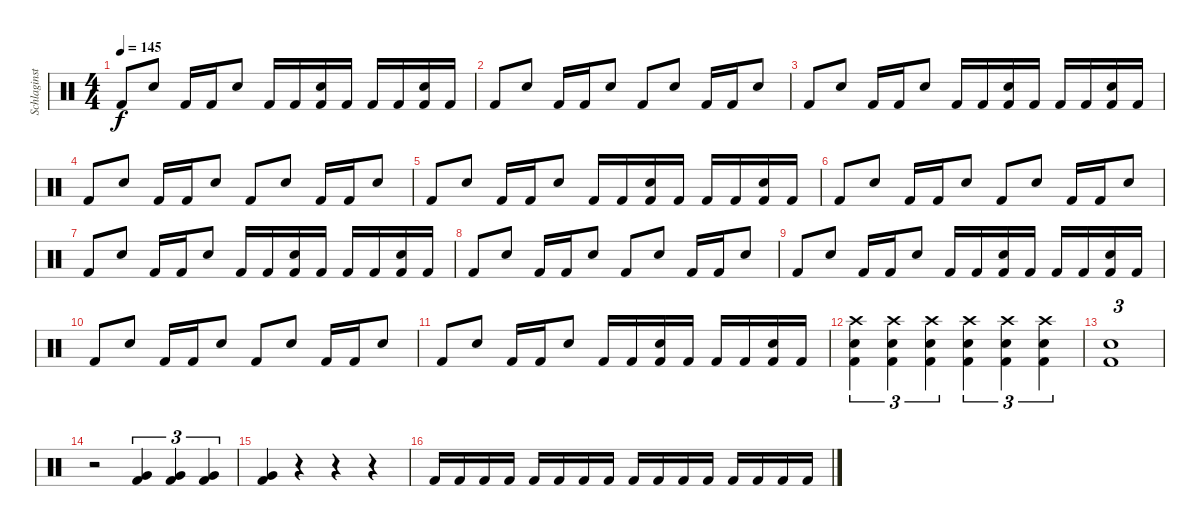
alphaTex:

\track ("Schlaginstrumente - Auswahl" "Schlaginst") {instrument percussion}
\staff {score}
\articulation defaults
\ts (4 4)
\tempo 145
\clef neutral
\ks c "Kick (hit) 2".8{dy f} "Snare (hit) 2".8 "Kick (hit) 2".16 "Kick (hit) 2".16 "Snare (hit) 2".8 "Kick (hit) 2".16 "Kick (hit) 2".16
("Snare (hit) 2" "Kick (hit) 2").16 "Kick (hit) 2".16 "Kick (hit) 2".16 "Kick (hit) 2".16 ("Snare (hit) 2" "Kick (hit) 2").16 "Kick (hit) 2".16 |
"Kick (hit) 2".8 "Snare (hit) 2".8 "Kick (hit) 2".16 "Kick (hit) 2".16 "Snare (hit) 2".8 "Kick (hit) 2".8 "Snare (hit) 2".8 "Kick (hit) 2".16 "Kick (hit) 2".16 "Snare (hit) 2".8 |
"Kick (hit) 2".8 "Snare (hit) 2".8 "Kick (hit) 2".16 "Kick (hit) 2".16 "Snare (hit) 2".8 "Kick (hit) 2".16 "Kick (hit) 2".16 ("Snare (hit) 2" "Kick (hit) 2").16 "Kick (hit) 2".16 "Kick (hit) 2".16 "Kick (hit) 2".16 ("Snare (hit) 2" "Kick (hit) 2").16 "Kick (hit) 2".16 |
"Kick (hit) 2".8 "Snare (hit) 2".8 "Kick (hit) 2".16 "Kick (hit) 2".16 "Snare (hit) 2".8 "Kick (hit) 2".8 "Snare (hit) 2".8 "Kick (hit) 2".16 "Kick (hit) 2".16 "Snare (hit) 2".8 |
"Kick (hit) 2".8 "Snare (hit) 2".8 "Kick (hit) 2".16 "Kick (hit) 2".16 "Snare (hit) 2".8 "Kick (hit) 2".16 "Kick (hit) 2".16 ("Snare (hit) 2" "Kick (hit) 2").16 "Kick (hit) 2".16 "Kick (hit) 2".16 "Kick (hit) 2".16 ("Snare (hit) 2" "Kick (hit) 2").16 "Kick (hit) 2".16 |
"Kick (hit) 2".8 "Snare (hit) 2".8 "Kick (hit) 2".16 "Kick (hit) 2".16 "Snare (hit) 2".8 "Kick (hit) 2".8 "Snare (hit) 2".8 "Kick (hit) 2".16 "Kick (hit) 2".16 "Snare (hit) 2".8 |
"Kick (hit) 2".8 "Snare (hit) 2".8 "Kick (hit) 2".16 "Kick (hit) 2".16 "Snare (hit) 2".8 "Kick (hit) 2".16 "Kick (hit) 2".16 ("Snare (hit) 2" "Kick (hit) 2").16 "Kick (hit) 2".16 "Kick (hit) 2".16 "Kick (hit) 2".16 ("Snare (hit) 2" "Kick (hit) 2").16 "Kick (hit) 2".16 |
"Kick (hit) 2".8 "Snare (hit) 2".8 "Kick (hit) 2".16 "Kick (hit) 2".16 "Snare (hit) 2".8 "Kick (hit) 2".8 "Snare (hit) 2".8 "Kick (hit) 2".16 "Kick (hit) 2".16 "Snare (hit) 2".8 |
"Kick (hit) 2".8 "Snare (hit) 2".8 "Kick (hit) 2".16 "Kick (hit) 2".16 "Snare (hit) 2".8 "Kick (hit) 2".16 "Kick (hit) 2".16 ("Snare (hit) 2" "Kick (hit) 2").16 "Kick (hit) 2".16 "Kick (hit) 2".16 "Kick (hit) 2".16 ("Snare (hit) 2" "Kick (hit) 2").16 "Kick (hit) 2".16 |
"Kick (hit) 2".8 "Snare (hit) 2".8 "Kick (hit) 2".16 "Kick (hit) 2".16 "Snare (hit) 2".8 "Kick (hit) 2".8 "Snare (hit) 2".8 "Kick (hit) 2".16 "Kick (hit) 2".16 "Snare (hit) 2".8 |
"Kick (hit) 2".8 "Snare (hit) 2".8 "Kick (hit) 2".16 "Kick (hit) 2".16 "Snare (hit) 2".8 "Kick (hit) 2".16 "Kick (hit) 2".16 ("Snare (hit) 2" "Kick (hit) 2").16 "Kick (hit) 2".16 "Kick (hit) 2".16 "Kick (hit) 2".16 ("Snare (hit) 2" "Kick (hit) 2").16 "Kick (hit) 2".16 |
("Crash high (hit)" "Snare (hit) 2" "Kick (hit) 2").4{tu (3 2)} ("Crash high (hit)" "Snare (hit) 2" "Kick (hit) 2").4{tu (3 2)} ("Crash high (hit)" "Snare (hit) 2" "Kick (hit) 2").4{tu (3 2)} ("Crash high (hit)" "Snare (hit) 2" "Kick (hit) 2").4{tu (3 2)} ("Crash high (hit)" "Snare (hit) 2" "Kick (hit) 2").4{tu (3 2)} ("Crash high (hit)" "Snare (hit) 2" "Kick (hit) 2").4{tu (3 2)} |
("Snare (hit) 2" "Kick (hit) 2").1{tu (3 2)} |
r.2 ("Very Low Tom (hit)" "Kick (hit) 2").4{tu (3 2)} ("Very Low Tom (hit)" "Kick (hit) 2").4{tu (3 2)} ("Very Low Tom (hit)" "Kick (hit) 2").4{tu (3 2)} |
("Very Low Tom (hit)" "Kick (hit) 2").4 r.4 r.4 r.4 |
"Kick (hit) 2".16 "Kick (hit) 2".16 "Kick (hit) 2".16 "Kick (hit) 2".16 "Kick (hit) 2".16 "Kick (hit) 2".16 "Kick (hit) 2".16 "Kick (hit) 2".16 "Kick (hit) 2".16 "Kick (hit) 2".16 "Kick (hit) 2".16 "Kick (hit) 2".16 "Kick (hit) 2".16 "Kick (hit) 2".16 "Kick (hit) 2".16 "Kick (hit) 2".16
